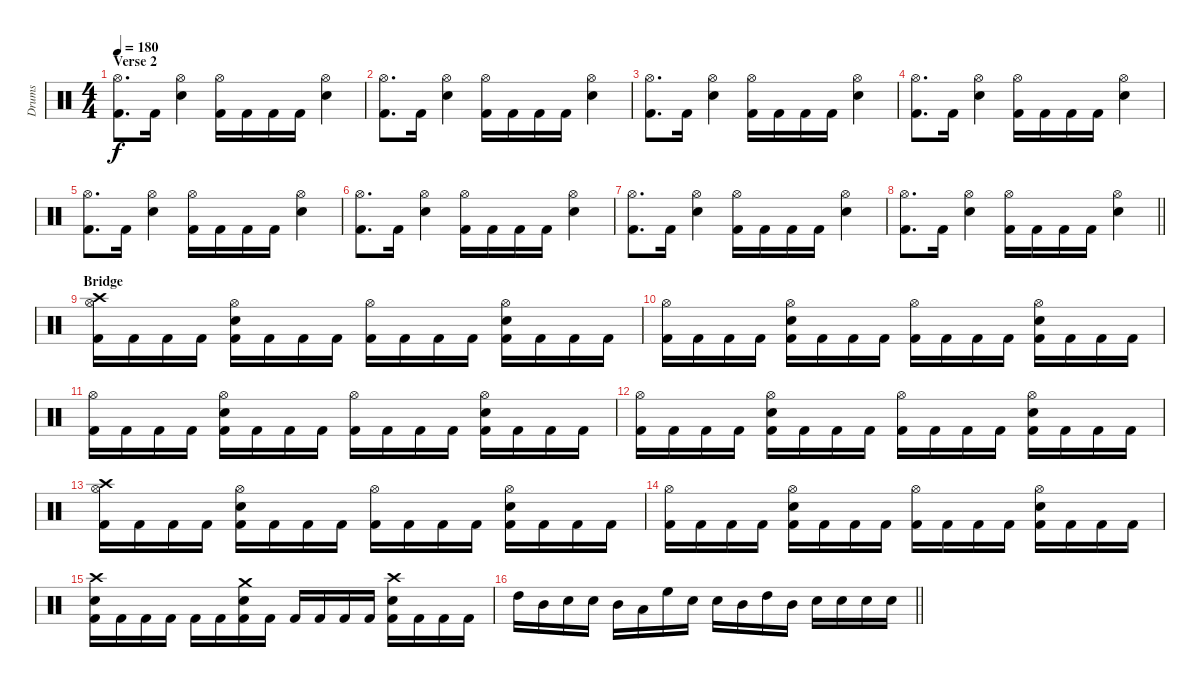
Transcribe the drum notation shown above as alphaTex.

\track ("Drums" "Drums") {instrument percussion}
\staff {score}
\articulation defaults
\ts (4 4)
\section ("" "Verse 2")
\tempo 180
\clef neutral
\ks c
("Hi-Hat (open)" "Kick (hit) 2").8{d dy f} "Kick (hit) 2".16 ("Hi-Hat (open)" "Electric Snare (hit)").4 ("Hi-Hat (open)" "Kick (hit) 2").16 "Kick (hit) 2".16 "Kick (hit) 2".16 "Kick (hit) 2".16 ("Hi-Hat (open)" "Electric Snare (hit)").4 |
("Hi-Hat (open)" "Kick (hit) 2").8{d} "Kick (hit) 2".16 ("Hi-Hat (open)" "Electric Snare (hit)").4 ("Hi-Hat (open)" "Kick (hit) 2").16 "Kick (hit) 2".16 "Kick (hit) 2".16 "Kick (hit) 2".16 ("Hi-Hat (open)" "Electric Snare (hit)").4 |
("Hi-Hat (open)" "Kick (hit) 2").8{d} "Kick (hit) 2".16 ("Hi-Hat (open)" "Electric Snare (hit)").4 ("Hi-Hat (open)" "Kick (hit) 2").16 "Kick (hit) 2".16 "Kick (hit) 2".16 "Kick (hit) 2".16 ("Hi-Hat (open)" "Electric Snare (hit)").4 |
("Hi-Hat (open)" "Kick (hit) 2").8{d} "Kick (hit) 2".16 ("Hi-Hat (open)" "Electric Snare (hit)").4 ("Hi-Hat (open)" "Kick (hit) 2").16 "Kick (hit) 2".16 "Kick (hit) 2".16 "Kick (hit) 2".16 ("Hi-Hat (open)" "Electric Snare (hit)").4 |
("Hi-Hat (open)" "Kick (hit) 2").8{d} "Kick (hit) 2".16 ("Hi-Hat (open)" "Electric Snare (hit)").4 ("Hi-Hat (open)" "Kick (hit) 2").16 "Kick (hit) 2".16 "Kick (hit) 2".16 "Kick (hit) 2".16 ("Hi-Hat (open)" "Electric Snare (hit)").4 |
("Hi-Hat (open)" "Kick (hit) 2").8{d} "Kick (hit) 2".16 ("Hi-Hat (open)" "Electric Snare (hit)").4 ("Hi-Hat (open)" "Kick (hit) 2").16 "Kick (hit) 2".16 "Kick (hit) 2".16 "Kick (hit) 2".16 ("Hi-Hat (open)" "Electric Snare (hit)").4 |
("Hi-Hat (open)" "Kick (hit) 2").8{d} "Kick (hit) 2".16 ("Hi-Hat (open)" "Electric Snare (hit)").4 ("Hi-Hat (open)" "Kick (hit) 2").16 "Kick (hit) 2".16 "Kick (hit) 2".16 "Kick (hit) 2".16 ("Hi-Hat (open)" "Electric Snare (hit)").4 |
\barLineRight lightlight
("Hi-Hat (open)" "Kick (hit) 2").8{d} "Kick (hit) 2".16 ("Hi-Hat (open)" "Electric Snare (hit)").4 ("Hi-Hat (open)" "Kick (hit) 2").16 "Kick (hit) 2".16 "Kick (hit) 2".16 "Kick (hit) 2".16 ("Hi-Hat (open)" "Electric Snare (hit)").4 |
\section ("" "Bridge")
("Crash high (hit)" "Hi-Hat (open)" "Kick (hit) 2").16 "Kick (hit) 2".16 "Kick (hit) 2".16 "Kick (hit) 2".16 ("Hi-Hat (open)" "Electric Snare (hit)" "Kick (hit) 2").16 "Kick (hit) 2".16 "Kick (hit) 2".16 "Kick (hit) 2".16 ("Hi-Hat (open)" "Kick (hit) 2").16 "Kick (hit) 2".16 "Kick (hit) 2".16 "Kick (hit) 2".16 ("Hi-Hat (open)" "Electric Snare (hit)" "Kick (hit) 2").16 "Kick (hit) 2".16 "Kick (hit) 2".16 "Kick (hit) 2".16 |
("Hi-Hat (open)" "Kick (hit) 2").16 "Kick (hit) 2".16 "Kick (hit) 2".16 "Kick (hit) 2".16 ("Hi-Hat (open)" "Electric Snare (hit)" "Kick (hit) 2").16 "Kick (hit) 2".16 "Kick (hit) 2".16 "Kick (hit) 2".16 ("Hi-Hat (open)" "Kick (hit) 2").16 "Kick (hit) 2".16 "Kick (hit) 2".16 "Kick (hit) 2".16 ("Hi-Hat (open)" "Electric Snare (hit)" "Kick (hit) 2").16 "Kick (hit) 2".16 "Kick (hit) 2".16 "Kick (hit) 2".16 |
("Hi-Hat (open)" "Kick (hit) 2").16 "Kick (hit) 2".16 "Kick (hit) 2".16 "Kick (hit) 2".16 ("Hi-Hat (open)" "Electric Snare (hit)" "Kick (hit) 2").16 "Kick (hit) 2".16 "Kick (hit) 2".16 "Kick (hit) 2".16 ("Hi-Hat (open)" "Kick (hit) 2").16 "Kick (hit) 2".16 "Kick (hit) 2".16 "Kick (hit) 2".16 ("Hi-Hat (open)" "Electric Snare (hit)" "Kick (hit) 2").16 "Kick (hit) 2".16 "Kick (hit) 2".16 "Kick (hit) 2".16 |
("Hi-Hat (open)" "Kick (hit) 2").16 "Kick (hit) 2".16 "Kick (hit) 2".16 "Kick (hit) 2".16 ("Hi-Hat (open)" "Electric Snare (hit)" "Kick (hit) 2").16 "Kick (hit) 2".16 "Kick (hit) 2".16 "Kick (hit) 2".16 ("Hi-Hat (open)" "Kick (hit) 2").16 "Kick (hit) 2".16 "Kick (hit) 2".16 "Kick (hit) 2".16 ("Hi-Hat (open)" "Electric Snare (hit)" "Kick (hit) 2").16 "Kick (hit) 2".16 "Kick (hit) 2".16 "Kick (hit) 2".16 |
("Crash high (hit)" "Hi-Hat (open)" "Kick (hit) 2").16 "Kick (hit) 2".16 "Kick (hit) 2".16 "Kick (hit) 2".16 ("Hi-Hat (open)" "Electric Snare (hit)" "Kick (hit) 2").16 "Kick (hit) 2".16 "Kick (hit) 2".16 "Kick (hit) 2".16 ("Hi-Hat (open)" "Kick (hit) 2").16 "Kick (hit) 2".16 "Kick (hit) 2".16 "Kick (hit) 2".16 ("Hi-Hat (open)" "Electric Snare (hit)" "Kick (hit) 2").16 "Kick (hit) 2".16 "Kick (hit) 2".16 "Kick (hit) 2".16 |
("Hi-Hat (open)" "Kick (hit) 2").16 "Kick (hit) 2".16 "Kick (hit) 2".16 "Kick (hit) 2".16 ("Hi-Hat (open)" "Electric Snare (hit)" "Kick (hit) 2").16 "Kick (hit) 2".16 "Kick (hit) 2".16 "Kick (hit) 2".16 ("Hi-Hat (open)" "Kick (hit) 2").16 "Kick (hit) 2".16 "Kick (hit) 2".16 "Kick (hit) 2".16 ("Hi-Hat (open)" "Electric Snare (hit)" "Kick (hit) 2").16 "Kick (hit) 2".16 "Kick (hit) 2".16 "Kick (hit) 2".16 |
("Crash high (hit)" "Electric Snare (hit)" "Kick (hit) 2").16 "Kick (hit) 2".16 "Kick (hit) 2".16 "Kick (hit) 2".16 "Kick (hit) 2".16 "Kick (hit) 2".16 ("Crash medium (hit)" "Electric Snare (hit)" "Kick (hit) 2").16 "Kick (hit) 2".16 "Kick (hit) 2".16 "Kick (hit) 2".16 "Kick (hit) 2".16 "Kick (hit) 2".16 ("Crash high (hit)" "Electric Snare (hit)" "Kick (hit) 2").16 "Kick (hit) 2".16 "Kick (hit) 2".16 "Kick (hit) 2".16 |
\barLineRight lightlight "High Tom (hit)".16 "Mid Tom (hit)".16 "Electric Snare (hit)".16 "Electric Snare (hit)".16 "Mid Tom (hit)".16 "Low Tom (hit)".16 "High Floor Tom (hit)".16 "Electric Snare (hit)".16 "Electric Snare (hit)".16 "Mid Tom (hit)".16 "High Tom (hit)".16 "Mid Tom (hit)".16 "Electric Snare (hit)".16 "Electric Snare (hit)".16 "Electric Snare (hit)".16 "Electric Snare (hit)".16
